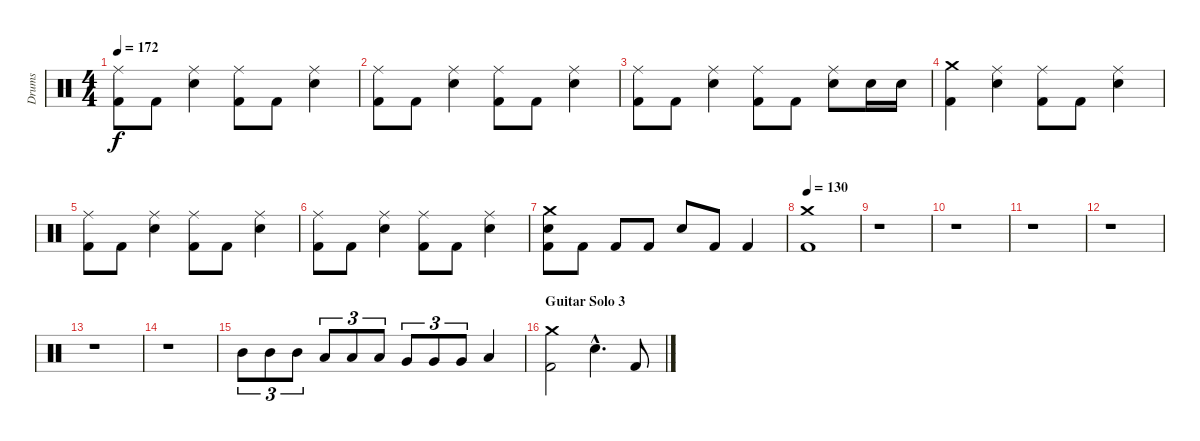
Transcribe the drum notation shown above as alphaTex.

\track ("Drums" "Drums") {instrument percussion}
\staff {score}
\articulation defaults
\ts (4 4)
\tempo 172
\clef neutral
\ks c
("Ride (middle)" "Kick (hit) 2").8{dy f} "Kick (hit) 2".8 ("Ride (middle)" "Electric Snare (hit)").4 ("Ride (middle)" "Kick (hit) 2").8 "Kick (hit) 2".8 ("Ride (middle)" "Electric Snare (hit)").4 |
("Ride (middle)" "Kick (hit) 2").8 "Kick (hit) 2".8 ("Ride (middle)" "Electric Snare (hit)").4 ("Ride (middle)" "Kick (hit) 2").8 "Kick (hit) 2".8 ("Ride (middle)" "Electric Snare (hit)").4 |
("Ride (middle)" "Kick (hit) 2").8 "Kick (hit) 2".8 ("Ride (middle)" "Electric Snare (hit)").4 ("Ride (middle)" "Kick (hit) 2").8 "Kick (hit) 2".8 ("Ride (middle)" "Electric Snare (hit)").8 "Electric Snare (hit)".16 "Electric Snare (hit)".16 |
("Crash medium (hit)" "Kick (hit) 2").4 ("Ride (middle)" "Electric Snare (hit)").4 ("Ride (middle)" "Kick (hit) 2").8 "Kick (hit) 2".8 ("Ride (middle)" "Electric Snare (hit)").4 |
("Ride (middle)" "Kick (hit) 2").8 "Kick (hit) 2".8 ("Ride (middle)" "Electric Snare (hit)").4 ("Ride (middle)" "Kick (hit) 2").8 "Kick (hit) 2".8 ("Ride (middle)" "Electric Snare (hit)").4 |
("Ride (middle)" "Kick (hit) 2").8 "Kick (hit) 2".8 ("Ride (middle)" "Electric Snare (hit)").4 ("Ride (middle)" "Kick (hit) 2").8 "Kick (hit) 2".8 ("Ride (middle)" "Electric Snare (hit)").4 |
("Crash medium (hit)" "Electric Snare (hit)" "Kick (hit) 2").8 "Kick (hit) 2".8 "Kick (hit) 2".8 "Kick (hit) 2".8 "Electric Snare (hit)".8 "Kick (hit) 2".8 "Kick (hit) 2".4 |
\section ("" "")
\tempo 130
("Crash medium (hit)" "Kick (hit) 2").1 |
r.1 |
r.1 |
r.1 |
r.1 |
r.1 |
r.1 |
"Mid Tom (hit)".8{tu (3 2)} "Mid Tom (hit)".8{tu (3 2)} "Mid Tom (hit)".8{tu (3 2)} "Low Tom (hit)".8{tu (3 2)} "Low Tom (hit)".8{tu (3 2)} "Low Tom (hit)".8{tu (3 2)} "Very Low Tom (hit)".8{tu (3 2)} "Very Low Tom (hit)".8{tu (3 2)} "Very Low Tom (hit)".8{tu (3 2)} "Low Floor Tom (hit)".4 |
\section ("" "Guitar Solo 3")
("Crash medium (hit)" "Kick (hit) 2").2 "Electric Snare (hit)"{hac}.4{d} "Kick (hit) 2".8
